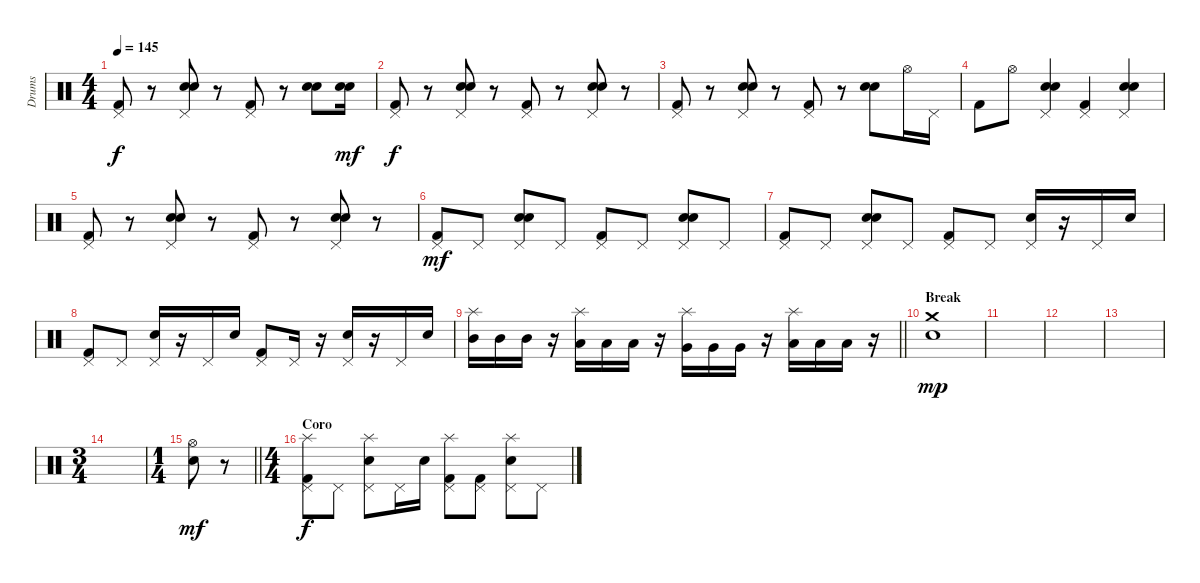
\track ("Drums" "Drums") {instrument percussion}
\staff {score}
\articulation defaults
\ts (4 4)
\tempo 145
\clef neutral
\ks c
("Pedal Hi-Hat (hit)" "Kick (hit) 2").8{dy f} r.8 ("Hand Clap (hit)" "Pedal Hi-Hat (hit)" "Electric Snare (hit)").8 r.8 ("Pedal Hi-Hat (hit)" "Kick (hit) 2").8 r.8 ("Hand Clap (hit)" "Electric Snare (hit)").8 ("Hand Clap (hit)" "Electric Snare (hit)").16{dy mf} |
("Pedal Hi-Hat (hit)" "Kick (hit) 2").8{dy f} r.8 ("Hand Clap (hit)" "Pedal Hi-Hat (hit)" "Electric Snare (hit)").8 r.8 ("Pedal Hi-Hat (hit)" "Kick (hit) 2").8 r.8 ("Hand Clap (hit)" "Pedal Hi-Hat (hit)" "Electric Snare (hit)").8 r.8 |
("Pedal Hi-Hat (hit)" "Kick (hit) 2").8 r.8 ("Hand Clap (hit)" "Pedal Hi-Hat (hit)" "Electric Snare (hit)").8 r.8 ("Pedal Hi-Hat (hit)" "Kick (hit) 2").8 r.8 ("Hand Clap (hit)" "Electric Snare (hit)").8 "Hi-Hat (open)".16 "Pedal Hi-Hat (hit)".16 |
"Kick (hit) 2".8 "Hi-Hat (open)".8 ("Hand Clap (hit)" "Pedal Hi-Hat (hit)" "Electric Snare (hit)").4 ("Pedal Hi-Hat (hit)" "Kick (hit) 2").4 ("Hand Clap (hit)" "Pedal Hi-Hat (hit)" "Electric Snare (hit)").4 |
("Pedal Hi-Hat (hit)" "Kick (hit) 2").8 r.8 ("Hand Clap (hit)" "Pedal Hi-Hat (hit)" "Electric Snare (hit)").8 r.8 ("Pedal Hi-Hat (hit)" "Kick (hit) 2").8 r.8 ("Hand Clap (hit)" "Pedal Hi-Hat (hit)" "Electric Snare (hit)").8 r.8 |
("Pedal Hi-Hat (hit)" "Kick (hit) 2").8{dy mf} "Pedal Hi-Hat (hit)".8 ("Pedal Hi-Hat (hit)" "Hand Clap (hit)" "Electric Snare (hit)").8 "Pedal Hi-Hat (hit)".8 ("Pedal Hi-Hat (hit)" "Kick (hit) 2").8 "Pedal Hi-Hat (hit)".8 ("Pedal Hi-Hat (hit)" "Hand Clap (hit)" "Electric Snare (hit)").8 "Pedal Hi-Hat (hit)".8 |
("Pedal Hi-Hat (hit)" "Kick (hit) 2").8 "Pedal Hi-Hat (hit)".8 ("Pedal Hi-Hat (hit)" "Hand Clap (hit)" "Electric Snare (hit)").8 "Pedal Hi-Hat (hit)".8 ("Pedal Hi-Hat (hit)" "Kick (hit) 2").8 "Pedal Hi-Hat (hit)".8 ("Pedal Hi-Hat (hit)" "Electric Snare (hit)").16 r.16 "Pedal Hi-Hat (hit)".16 "Electric Snare (hit)".16 |
("Pedal Hi-Hat (hit)" "Kick (hit) 2").8 "Pedal Hi-Hat (hit)".8 ("Pedal Hi-Hat (hit)" "Electric Snare (hit)").16 r.16 "Pedal Hi-Hat (hit)".16 "Electric Snare (hit)".16 ("Pedal Hi-Hat (hit)" "Kick (hit) 2").8 "Pedal Hi-Hat (hit)".16 r.16 ("Pedal Hi-Hat (hit)" "Electric Snare (hit)").16 r.16 "Pedal Hi-Hat (hit)".16 "Electric Snare (hit)".16 |
\barLineRight lightlight
("Splash (hit)" "Mid Tom (hit)").16 "Mid Tom (hit)".16 "Mid Tom (hit)".16 r.16 ("Splash (hit)" "Low Tom (hit)").16 "Low Tom (hit)".16 "Low Tom (hit)".16 r.16 ("Splash (hit)" "Very Low Tom (hit)").16 "Very Low Tom (hit)".16 "Very Low Tom (hit)".16 r.16 ("Splash (hit)" "Low Floor Tom (hit)").16 "Low Floor Tom (hit)".16 "Low Floor Tom (hit)".16 r.16 |
\section ("" "Break")
("Crash medium (hit)" "Electric Snare (hit)").1{dy mp} |
|
|
|
\ts (3 4)
|
\ts (1 4)
\barLineRight lightlight
("Hi-Hat (open)" "Electric Snare (hit)").8{dy mf} r.8 |
\ts (4 4)
\section ("" "Coro")
("Pedal Hi-Hat (hit)" "Splash (hit)" "Kick (hit) 2").8{dy f} "Pedal Hi-Hat (hit)".8 ("Pedal Hi-Hat (hit)" "Splash (hit)" "Electric Snare (hit)").8 "Pedal Hi-Hat (hit)".16 "Electric Snare (hit)".16 ("Pedal Hi-Hat (hit)" "Splash (hit)" "Kick (hit) 2").8 ("Pedal Hi-Hat (hit)" "Kick (hit) 2").8 ("Pedal Hi-Hat (hit)" "Splash (hit)" "Electric Snare (hit)").8 "Pedal Hi-Hat (hit)".8
